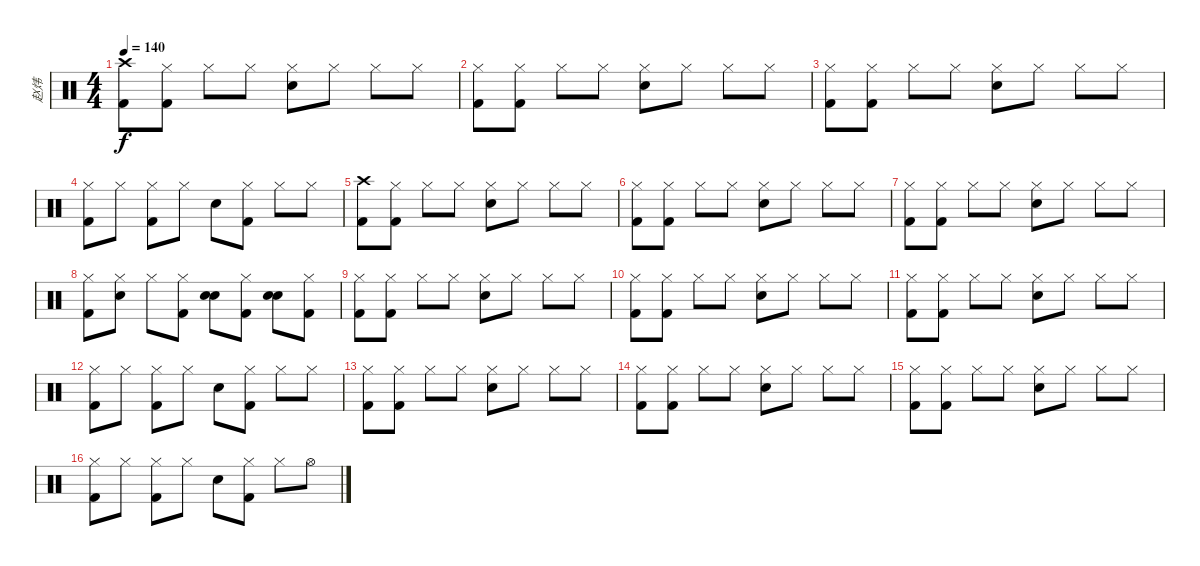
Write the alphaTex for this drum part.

\track ("赵炜" "赵炜") {instrument percussion}
\staff {score}
\articulation defaults
\ts (4 4)
\tempo 140
\clef neutral
\ks c
("Crash high (hit)" "Kick (hit) 2").8{dy f} ("Hi-Hat (closed)" "Kick (hit) 2").8 "Hi-Hat (closed)".8 "Hi-Hat (closed)".8 ("Hi-Hat (closed)" "Snare (hit) 2").8 "Hi-Hat (closed)".8 "Hi-Hat (closed)".8 "Hi-Hat (closed)".8 |
("Hi-Hat (closed)" "Kick (hit) 2").8 ("Hi-Hat (closed)" "Kick (hit) 2").8 "Hi-Hat (closed)".8 "Hi-Hat (closed)".8 ("Hi-Hat (closed)" "Snare (hit) 2").8 "Hi-Hat (closed)".8 "Hi-Hat (closed)".8 "Hi-Hat (closed)".8 |
("Hi-Hat (closed)" "Kick (hit) 2").8 ("Hi-Hat (closed)" "Kick (hit) 2").8 "Hi-Hat (closed)".8 "Hi-Hat (closed)".8 ("Hi-Hat (closed)" "Snare (hit) 2").8 "Hi-Hat (closed)".8 "Hi-Hat (closed)".8 "Hi-Hat (closed)".8 |
("Hi-Hat (closed)" "Kick (hit) 2").8 "Hi-Hat (closed)".8 ("Hi-Hat (closed)" "Kick (hit) 2").8 "Hi-Hat (closed)".8 "Snare (hit) 2".8 ("Hi-Hat (closed)" "Kick (hit) 2").8 "Hi-Hat (closed)".8 "Hi-Hat (closed)".8 |
("Crash high (hit)" "Kick (hit) 2").8 ("Hi-Hat (closed)" "Kick (hit) 2").8 "Hi-Hat (closed)".8 "Hi-Hat (closed)".8 ("Hi-Hat (closed)" "Snare (hit) 2").8 "Hi-Hat (closed)".8 "Hi-Hat (closed)".8 "Hi-Hat (closed)".8 |
("Hi-Hat (closed)" "Kick (hit) 2").8 ("Hi-Hat (closed)" "Kick (hit) 2").8 "Hi-Hat (closed)".8 "Hi-Hat (closed)".8 ("Hi-Hat (closed)" "Snare (hit) 2").8 "Hi-Hat (closed)".8 "Hi-Hat (closed)".8 "Hi-Hat (closed)".8 |
("Hi-Hat (closed)" "Kick (hit) 2").8 ("Hi-Hat (closed)" "Kick (hit) 2").8 "Hi-Hat (closed)".8 "Hi-Hat (closed)".8 ("Hi-Hat (closed)" "Snare (hit) 2").8 "Hi-Hat (closed)".8 "Hi-Hat (closed)".8 "Hi-Hat (closed)".8 |
("Hi-Hat (closed)" "Kick (hit) 2").8 ("Hi-Hat (closed)" "Snare (hit) 2").8 "Hi-Hat (closed)".8 ("Hi-Hat (closed)" "Kick (hit) 2").8 ("Electric Snare (hit)" "Snare (hit) 2").8 ("Hi-Hat (closed)" "Kick (hit) 2").8 ("Electric Snare (hit)" "Snare (hit) 2").8 ("Hi-Hat (closed)" "Kick (hit) 2").8 |
("Hi-Hat (closed)" "Kick (hit) 2").8 ("Hi-Hat (closed)" "Kick (hit) 2").8 "Hi-Hat (closed)".8 "Hi-Hat (closed)".8 ("Hi-Hat (closed)" "Snare (hit) 2").8 "Hi-Hat (closed)".8 "Hi-Hat (closed)".8 "Hi-Hat (closed)".8 |
("Hi-Hat (closed)" "Kick (hit) 2").8 ("Hi-Hat (closed)" "Kick (hit) 2").8 "Hi-Hat (closed)".8 "Hi-Hat (closed)".8 ("Hi-Hat (closed)" "Snare (hit) 2").8 "Hi-Hat (closed)".8 "Hi-Hat (closed)".8 "Hi-Hat (closed)".8 |
("Hi-Hat (closed)" "Kick (hit) 2").8 ("Hi-Hat (closed)" "Kick (hit) 2").8 "Hi-Hat (closed)".8 "Hi-Hat (closed)".8 ("Hi-Hat (closed)" "Snare (hit) 2").8 "Hi-Hat (closed)".8 "Hi-Hat (closed)".8 "Hi-Hat (closed)".8 |
("Hi-Hat (closed)" "Kick (hit) 2").8 "Hi-Hat (closed)".8 ("Hi-Hat (closed)" "Kick (hit) 2").8 "Hi-Hat (closed)".8 "Snare (hit) 2".8 ("Hi-Hat (closed)" "Kick (hit) 2").8 "Hi-Hat (closed)".8 "Hi-Hat (closed)".8 |
("Hi-Hat (closed)" "Kick (hit) 2").8 ("Hi-Hat (closed)" "Kick (hit) 2").8 "Hi-Hat (closed)".8 "Hi-Hat (closed)".8 ("Hi-Hat (closed)" "Snare (hit) 2").8 "Hi-Hat (closed)".8 "Hi-Hat (closed)".8 "Hi-Hat (closed)".8 |
("Hi-Hat (closed)" "Kick (hit) 2").8 ("Hi-Hat (closed)" "Kick (hit) 2").8 "Hi-Hat (closed)".8 "Hi-Hat (closed)".8 ("Hi-Hat (closed)" "Snare (hit) 2").8 "Hi-Hat (closed)".8 "Hi-Hat (closed)".8 "Hi-Hat (closed)".8 |
("Hi-Hat (closed)" "Kick (hit) 2").8 ("Hi-Hat (closed)" "Kick (hit) 2").8 "Hi-Hat (closed)".8 "Hi-Hat (closed)".8 ("Hi-Hat (closed)" "Snare (hit) 2").8 "Hi-Hat (closed)".8 "Hi-Hat (closed)".8 "Hi-Hat (closed)".8 |
("Hi-Hat (closed)" "Kick (hit) 2").8 "Hi-Hat (closed)".8 ("Hi-Hat (closed)" "Kick (hit) 2").8 "Hi-Hat (closed)".8 "Snare (hit) 2".8 ("Hi-Hat (closed)" "Kick (hit) 2").8 "Hi-Hat (closed)".8 "Hi-Hat (open)".8
